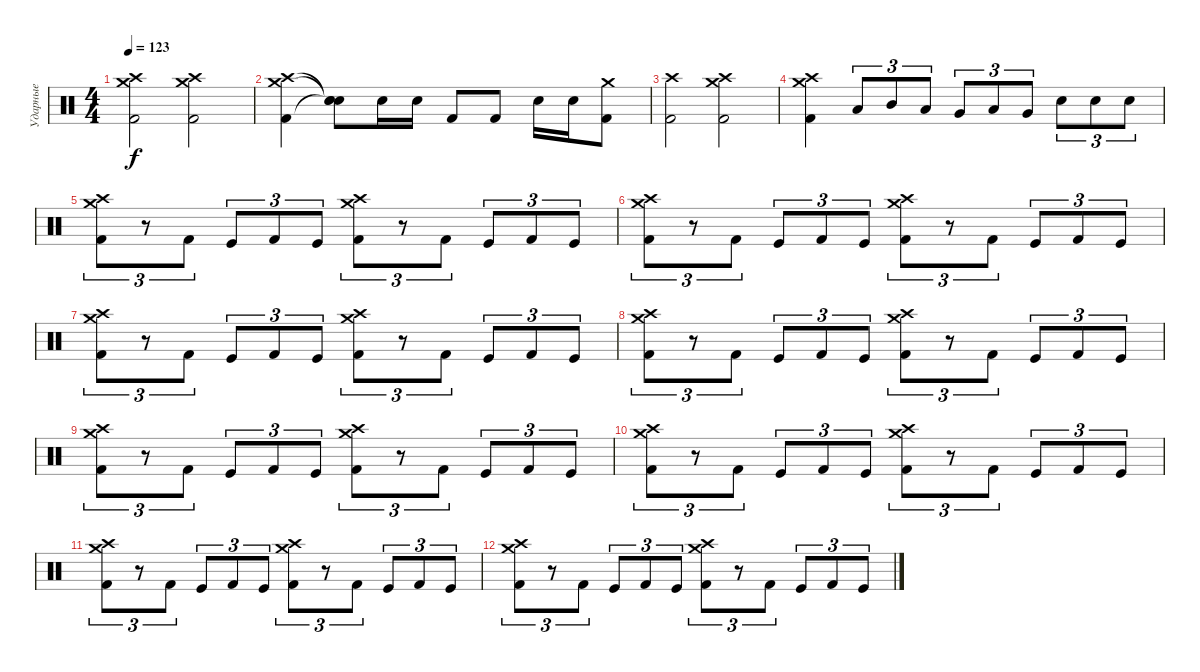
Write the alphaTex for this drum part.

\track ("Ударные" "Ударные") {instrument percussion}
\staff {score}
\articulation defaults
\ts (4 4)
\tempo 123
\clef neutral
\ks c
("Crash high (hit)" "Crash medium (hit)" "Kick (hit) 2").2{dy f} ("Crash high (hit)" "Crash medium (hit)" "Kick (hit) 2").2 |
("Crash high (hit)" "Crash medium (hit)" "Kick (hit) 2").4 ("Snare (hit)"{t} "Snare (hit)"{t} "Snare (hit)"{t}).8 "Snare (hit) 2".16 "Snare (hit) 2".16 "Kick (hit) 2".8 "Kick (hit) 2".8 "Snare (hit) 2".16 "Snare (hit) 2".16 ("Crash medium (hit)" "Kick (hit) 2").8 |
("Crash high (hit)" "Kick (hit) 2").2 ("Crash high (hit)" "Crash medium (hit)" "Kick (hit) 2").2 |
("Crash high (hit)" "Crash medium (hit)" "Kick (hit) 2").4 "Low Tom (hit)".8{tu (3 2)} "Mid Tom (hit)".8{tu (3 2)} "Low Tom (hit)".8{tu (3 2)} "Very Low Tom (hit)".8{tu (3 2)} "Low Tom (hit)".8{tu (3 2)} "Very Low Tom (hit)".8{tu (3 2)} "Snare (hit) 2".8{tu (3 2)} "Snare (hit) 2".8{tu (3 2)} "Snare (hit) 2".8{tu (3 2)} |
("Crash high (hit)" "Crash medium (hit)" "Kick (hit) 2").8{tu (3 2)} r.8{tu (3 2)} "Kick (hit) 2".8{tu (3 2)} "Kick (hit)".8{tu (3 2)} "Kick (hit) 2".8{tu (3 2)} "Kick (hit)".8{tu (3 2)} ("Crash high (hit)" "Crash medium (hit)" "Kick (hit) 2").8{tu (3 2)} r.8{tu (3 2)} "Kick (hit) 2".8{tu (3 2)} "Kick (hit)".8{tu (3 2)} "Kick (hit) 2".8{tu (3 2)} "Kick (hit)".8{tu (3 2)} |
("Crash high (hit)" "Crash medium (hit)" "Kick (hit) 2").8{tu (3 2)} r.8{tu (3 2)} "Kick (hit) 2".8{tu (3 2)} "Kick (hit)".8{tu (3 2)} "Kick (hit) 2".8{tu (3 2)} "Kick (hit)".8{tu (3 2)} ("Crash high (hit)" "Crash medium (hit)" "Kick (hit) 2").8{tu (3 2)} r.8{tu (3 2)} "Kick (hit) 2".8{tu (3 2)} "Kick (hit)".8{tu (3 2)} "Kick (hit) 2".8{tu (3 2)} "Kick (hit)".8{tu (3 2)} |
("Crash high (hit)" "Crash medium (hit)" "Kick (hit) 2").8{tu (3 2)} r.8{tu (3 2)} "Kick (hit) 2".8{tu (3 2)} "Kick (hit)".8{tu (3 2)} "Kick (hit) 2".8{tu (3 2)} "Kick (hit)".8{tu (3 2)} ("Crash high (hit)" "Crash medium (hit)" "Kick (hit) 2").8{tu (3 2)} r.8{tu (3 2)} "Kick (hit) 2".8{tu (3 2)} "Kick (hit)".8{tu (3 2)} "Kick (hit) 2".8{tu (3 2)} "Kick (hit)".8{tu (3 2)} |
("Crash high (hit)" "Crash medium (hit)" "Kick (hit) 2").8{tu (3 2)} r.8{tu (3 2)} "Kick (hit) 2".8{tu (3 2)} "Kick (hit)".8{tu (3 2)} "Kick (hit) 2".8{tu (3 2)} "Kick (hit)".8{tu (3 2)} ("Crash high (hit)" "Crash medium (hit)" "Kick (hit) 2").8{tu (3 2)} r.8{tu (3 2)} "Kick (hit) 2".8{tu (3 2)} "Kick (hit)".8{tu (3 2)} "Kick (hit) 2".8{tu (3 2)} "Kick (hit)".8{tu (3 2)} |
("Crash high (hit)" "Crash medium (hit)" "Kick (hit) 2").8{tu (3 2)} r.8{tu (3 2)} "Kick (hit) 2".8{tu (3 2)} "Kick (hit)".8{tu (3 2)} "Kick (hit) 2".8{tu (3 2)} "Kick (hit)".8{tu (3 2)} ("Crash high (hit)" "Crash medium (hit)" "Kick (hit) 2").8{tu (3 2)} r.8{tu (3 2)} "Kick (hit) 2".8{tu (3 2)} "Kick (hit)".8{tu (3 2)} "Kick (hit) 2".8{tu (3 2)} "Kick (hit)".8{tu (3 2)} |
("Crash high (hit)" "Crash medium (hit)" "Kick (hit) 2").8{tu (3 2)} r.8{tu (3 2)} "Kick (hit) 2".8{tu (3 2)} "Kick (hit)".8{tu (3 2)} "Kick (hit) 2".8{tu (3 2)} "Kick (hit)".8{tu (3 2)} ("Crash high (hit)" "Crash medium (hit)" "Kick (hit) 2").8{tu (3 2)} r.8{tu (3 2)} "Kick (hit) 2".8{tu (3 2)} "Kick (hit)".8{tu (3 2)} "Kick (hit) 2".8{tu (3 2)} "Kick (hit)".8{tu (3 2)} |
("Crash high (hit)" "Crash medium (hit)" "Kick (hit) 2").8{tu (3 2)} r.8{tu (3 2)} "Kick (hit) 2".8{tu (3 2)} "Kick (hit)".8{tu (3 2)} "Kick (hit) 2".8{tu (3 2)} "Kick (hit)".8{tu (3 2)} ("Crash high (hit)" "Crash medium (hit)" "Kick (hit) 2").8{tu (3 2)} r.8{tu (3 2)} "Kick (hit) 2".8{tu (3 2)} "Kick (hit)".8{tu (3 2)} "Kick (hit) 2".8{tu (3 2)} "Kick (hit)".8{tu (3 2)} |
("Crash high (hit)" "Crash medium (hit)" "Kick (hit) 2").8{tu (3 2)} r.8{tu (3 2)} "Kick (hit) 2".8{tu (3 2)} "Kick (hit)".8{tu (3 2)} "Kick (hit) 2".8{tu (3 2)} "Kick (hit)".8{tu (3 2)} ("Crash high (hit)" "Crash medium (hit)" "Kick (hit) 2").8{tu (3 2)} r.8{tu (3 2)} "Kick (hit) 2".8{tu (3 2)} "Kick (hit)".8{tu (3 2)} "Kick (hit) 2".8{tu (3 2)} "Kick (hit)".8{tu (3 2)}
